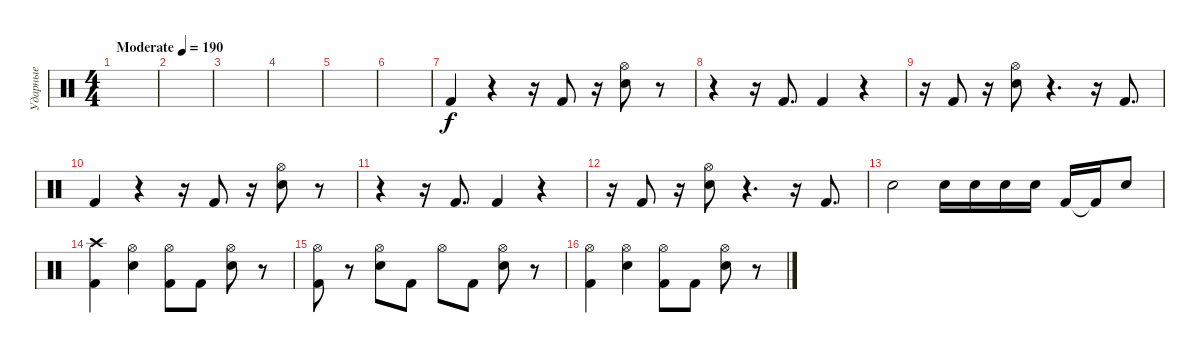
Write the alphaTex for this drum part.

\track ("Ударные" "Ударные") {instrument percussion}
\staff {score}
\articulation defaults
\ts (4 4)
\tempo (190 "Moderate")
\clef neutral
\ks c
|
|
|
|
|
|
"Kick (hit) 2".4 r.4 r.16 "Kick (hit) 2".8 r.16 ("Snare (hit) 2" "Hi-Hat (open)").8 r.8 |
r.4 r.16 "Kick (hit) 2".8{d} "Kick (hit) 2".4 r.4 |
r.16 "Kick (hit) 2".8 r.16 ("Snare (hit) 2" "Hi-Hat (open)").8 r.4{d} r.16 "Kick (hit) 2".8{d} |
"Kick (hit) 2".4 r.4 r.16 "Kick (hit) 2".8 r.16 ("Snare (hit) 2" "Hi-Hat (open)").8 r.8 |
r.4 r.16 "Kick (hit) 2".8{d} "Kick (hit) 2".4 r.4 |
r.16 "Kick (hit) 2".8 r.16 ("Snare (hit) 2" "Hi-Hat (open)").8 r.4{d} r.16 "Kick (hit) 2".8{d} |
"Snare (hit) 2".2{dy f} "Snare (hit) 2".16 "Snare (hit) 2".16 "Snare (hit) 2".16 "Snare (hit) 2".16 "Kick (hit) 2".16 "Kick (hit) 2"{t}.16 "Snare (hit) 2".8 |
("Crash high (hit)" "Kick (hit) 2").4 ("Hi-Hat (open)" "Snare (hit) 2").4 ("Hi-Hat (open)" "Kick (hit) 2").8 "Kick (hit) 2".8 ("Hi-Hat (open)" "Snare (hit) 2").8 r.8 |
("Hi-Hat (open)" "Kick (hit) 2").8 r.8 ("Hi-Hat (open)" "Snare (hit) 2").8 "Kick (hit) 2".8 "Hi-Hat (open)".8 "Kick (hit) 2".8 ("Hi-Hat (open)" "Snare (hit) 2").8 r.8 |
("Hi-Hat (open)" "Kick (hit) 2").4 ("Hi-Hat (open)" "Snare (hit) 2").4 ("Hi-Hat (open)" "Kick (hit) 2").8 "Kick (hit) 2".8 ("Hi-Hat (open)" "Snare (hit) 2").8 r.8
